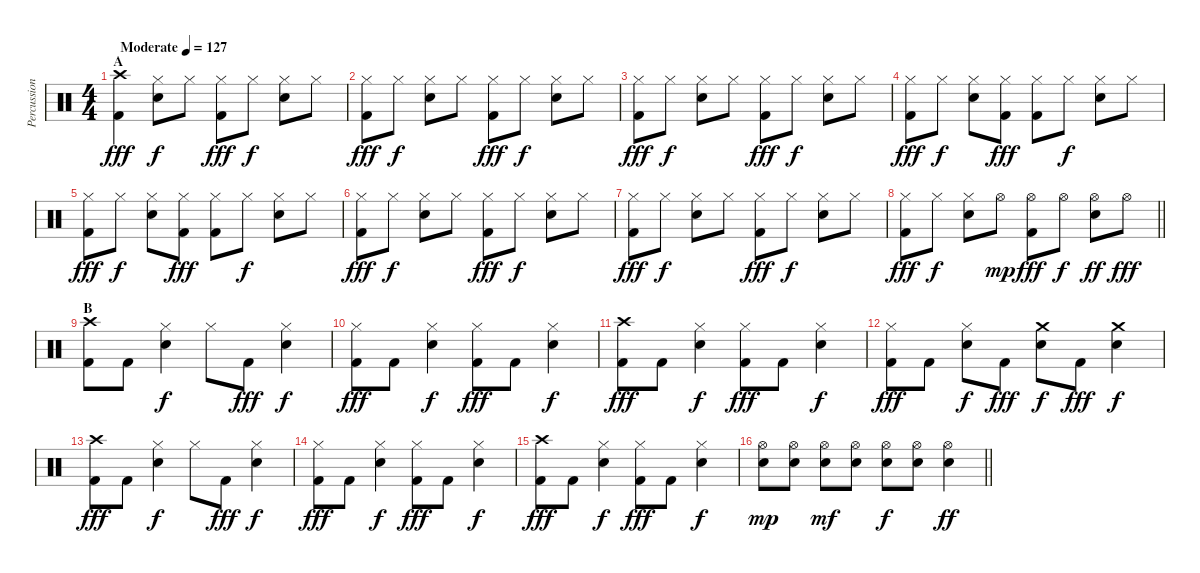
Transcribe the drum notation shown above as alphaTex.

\track ("Percussion" "Percussion") {instrument percussion}
\staff {score}
\articulation defaults
\ts (4 4)
\section ("" "A")
\tempo (127 "Moderate")
\clef neutral
\ks c
("Crash high (hit)" "Kick (hit) 2").4{dy fff} ("Hi-Hat (closed)" "Electric Snare (hit)").8{dy f} "Hi-Hat (closed)".8 ("Hi-Hat (closed)" "Kick (hit) 2").8{dy fff} "Hi-Hat (closed)".8{dy f} ("Hi-Hat (closed)" "Electric Snare (hit)").8 "Hi-Hat (closed)".8 |
("Hi-Hat (closed)" "Kick (hit) 2").8{dy fff} "Hi-Hat (closed)".8{dy f} ("Hi-Hat (closed)" "Electric Snare (hit)").8 "Hi-Hat (closed)".8 ("Hi-Hat (closed)" "Kick (hit) 2").8{dy fff} "Hi-Hat (closed)".8{dy f} ("Hi-Hat (closed)" "Electric Snare (hit)").8 "Hi-Hat (closed)".8 |
("Hi-Hat (closed)" "Kick (hit) 2").8{dy fff} "Hi-Hat (closed)".8{dy f} ("Hi-Hat (closed)" "Electric Snare (hit)").8 "Hi-Hat (closed)".8 ("Hi-Hat (closed)" "Kick (hit) 2").8{dy fff} "Hi-Hat (closed)".8{dy f} ("Hi-Hat (closed)" "Electric Snare (hit)").8 "Hi-Hat (closed)".8 |
("Hi-Hat (closed)" "Kick (hit) 2").8{dy fff} "Hi-Hat (closed)".8{dy f} ("Hi-Hat (closed)" "Electric Snare (hit)").8 ("Hi-Hat (closed)" "Kick (hit) 2").8{dy fff} ("Hi-Hat (closed)" "Kick (hit) 2").8 "Hi-Hat (closed)".8{dy f} ("Hi-Hat (closed)" "Electric Snare (hit)").8 "Hi-Hat (closed)".8 |
("Hi-Hat (closed)" "Kick (hit) 2").8{dy fff} "Hi-Hat (closed)".8{dy f} ("Hi-Hat (closed)" "Electric Snare (hit)").8 ("Hi-Hat (closed)" "Kick (hit) 2").8{dy fff} ("Hi-Hat (closed)" "Kick (hit) 2").8 "Hi-Hat (closed)".8{dy f} ("Hi-Hat (closed)" "Electric Snare (hit)").8 "Hi-Hat (closed)".8 |
("Hi-Hat (closed)" "Kick (hit) 2").8{dy fff} "Hi-Hat (closed)".8{dy f} ("Hi-Hat (closed)" "Electric Snare (hit)").8 "Hi-Hat (closed)".8 ("Hi-Hat (closed)" "Kick (hit) 2").8{dy fff} "Hi-Hat (closed)".8{dy f} ("Hi-Hat (closed)" "Electric Snare (hit)").8 "Hi-Hat (closed)".8 |
("Hi-Hat (closed)" "Kick (hit) 2").8{dy fff} "Hi-Hat (closed)".8{dy f} ("Hi-Hat (closed)" "Electric Snare (hit)").8 "Hi-Hat (closed)".8 ("Hi-Hat (closed)" "Kick (hit) 2").8{dy fff} "Hi-Hat (closed)".8{dy f} ("Hi-Hat (closed)" "Electric Snare (hit)").8 "Hi-Hat (closed)".8 |
\barLineRight lightlight
("Hi-Hat (closed)" "Kick (hit) 2").8{dy fff} "Hi-Hat (closed)".8{dy f} ("Hi-Hat (closed)" "Electric Snare (hit)").8 "Hi-Hat (open)".8{dy mp} ("Hi-Hat (open)" "Kick (hit) 2").8{dy fff} "Hi-Hat (open)".8{dy f} ("Hi-Hat (open)" "Electric Snare (hit)").8{dy ff} "Hi-Hat (open)".8{dy fff} |
\section ("" "B")
("Crash high (hit)" "Kick (hit) 2").8 "Kick (hit) 2".8 ("Hi-Hat (closed)" "Electric Snare (hit)").4{dy f} "Hi-Hat (closed)".8 "Kick (hit) 2".8{dy fff} ("Hi-Hat (closed)" "Electric Snare (hit)").4{dy f} |
("Hi-Hat (closed)" "Kick (hit) 2").8{dy fff} "Kick (hit) 2".8 ("Hi-Hat (closed)" "Electric Snare (hit)").4{dy f} ("Hi-Hat (closed)" "Kick (hit) 2").8{dy fff} "Kick (hit) 2".8 ("Hi-Hat (closed)" "Electric Snare (hit)").4{dy f} |
("Crash high (hit)" "Kick (hit) 2").8{dy fff} "Kick (hit) 2".8 ("Hi-Hat (closed)" "Electric Snare (hit)").4{dy f} ("Hi-Hat (closed)" "Kick (hit) 2").8{dy fff} "Kick (hit) 2".8 ("Hi-Hat (closed)" "Electric Snare (hit)").4{dy f} |
("Hi-Hat (closed)" "Kick (hit) 2").8{dy fff} "Kick (hit) 2".8 ("Hi-Hat (closed)" "Electric Snare (hit)").8{dy f} "Kick (hit) 2".8{dy fff} ("Crash medium (hit)" "Electric Snare (hit)").8{dy f} "Kick (hit) 2".8{dy fff} ("Crash medium (hit)" "Electric Snare (hit)").4{dy f} |
("Crash high (hit)" "Kick (hit) 2").8{dy fff} "Kick (hit) 2".8 ("Hi-Hat (closed)" "Electric Snare (hit)").4{dy f} "Hi-Hat (closed)".8 "Kick (hit) 2".8{dy fff} ("Hi-Hat (closed)" "Electric Snare (hit)").4{dy f} |
("Hi-Hat (closed)" "Kick (hit) 2").8{dy fff} "Kick (hit) 2".8 ("Hi-Hat (closed)" "Electric Snare (hit)").4{dy f} ("Hi-Hat (closed)" "Kick (hit) 2").8{dy fff} "Kick (hit) 2".8 ("Hi-Hat (closed)" "Electric Snare (hit)").4{dy f} |
("Crash high (hit)" "Kick (hit) 2").8{dy fff} "Kick (hit) 2".8 ("Hi-Hat (closed)" "Electric Snare (hit)").4{dy f} ("Hi-Hat (closed)" "Kick (hit) 2").8{dy fff} "Kick (hit) 2".8 ("Hi-Hat (closed)" "Electric Snare (hit)").4{dy f} |
\barLineRight lightlight
("Hi-Hat (open)" "Electric Snare (hit)").8{dy mp} ("Hi-Hat (open)" "Electric Snare (hit)").8 ("Hi-Hat (open)" "Electric Snare (hit)").8{dy mf} ("Hi-Hat (open)" "Electric Snare (hit)").8 ("Hi-Hat (open)" "Electric Snare (hit)").8{dy f} ("Hi-Hat (open)" "Electric Snare (hit)").8 ("Hi-Hat (open)" "Electric Snare (hit)").4{dy ff}
